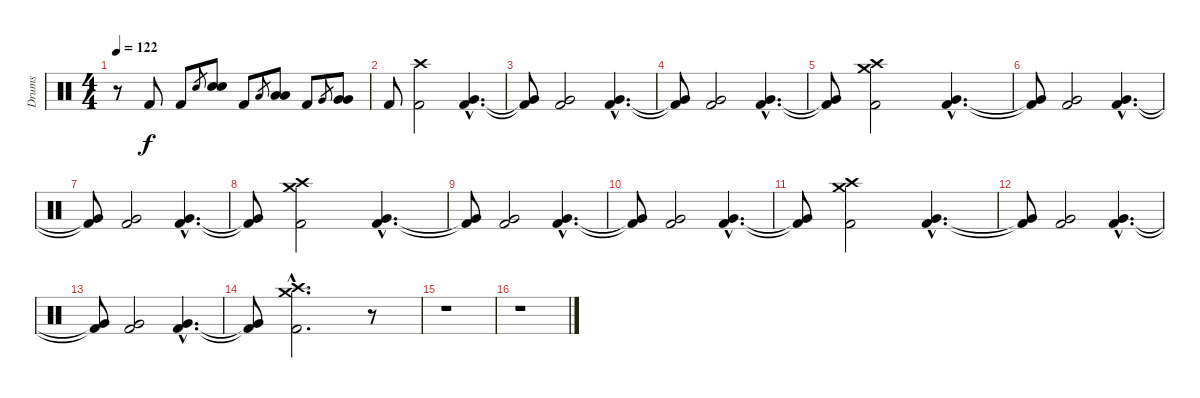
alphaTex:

\track ("Drums" "Drums") {instrument percussion}
\staff {score}
\articulation defaults
\ts (4 4)
\tempo 122
\clef neutral
\ks c
r.8{dy f} "Kick (hit) 2".8 "Kick (hit) 2".8 "Snare (hit) 2".8{gr} ("Snare (hit) 2" "Snare (hit) 2").8 "Kick (hit) 2".8 "Low Tom (hit)".8{gr} ("Low Tom (hit)" "Low Tom (hit)").8 "Kick (hit) 2".8 "Very Low Tom (hit)".8{gr} ("Very Low Tom (hit)" "Very Low Tom (hit)").8 |
"Kick (hit) 2".8 ("Crash high (hit)" "Kick (hit) 2").2 ("Very Low Tom (hit)"{hac} "Kick (hit) 2"{hac}).4{d} |
("Very Low Tom (hit)"{t} "Kick (hit) 2"{t}).8 ("Very Low Tom (hit)" "Kick (hit) 2").2 ("Very Low Tom (hit)"{hac} "Kick (hit) 2"{hac}).4{d} |
("Very Low Tom (hit)"{t} "Kick (hit) 2"{t}).8 ("Very Low Tom (hit)" "Kick (hit) 2").2 ("Very Low Tom (hit)"{hac} "Kick (hit) 2"{hac}).4{d} |
("Very Low Tom (hit)"{t} "Kick (hit) 2"{t}).8 ("Crash high (hit)" "Crash medium (hit)" "Kick (hit) 2").2 ("Very Low Tom (hit)"{hac} "Kick (hit) 2"{hac}).4{d} |
("Very Low Tom (hit)"{t} "Kick (hit) 2"{t}).8 ("Very Low Tom (hit)" "Kick (hit) 2").2 ("Very Low Tom (hit)"{hac} "Kick (hit) 2"{hac}).4{d} |
("Very Low Tom (hit)"{t} "Kick (hit) 2"{t}).8 ("Very Low Tom (hit)" "Kick (hit) 2").2 ("Very Low Tom (hit)"{hac} "Kick (hit) 2"{hac}).4{d} |
("Very Low Tom (hit)"{t} "Kick (hit) 2"{t}).8 ("Crash high (hit)" "Crash medium (hit)" "Kick (hit) 2").2 ("Very Low Tom (hit)"{hac} "Kick (hit) 2"{hac}).4{d} |
("Very Low Tom (hit)"{t} "Kick (hit) 2"{t}).8 ("Very Low Tom (hit)" "Kick (hit) 2").2 ("Very Low Tom (hit)"{hac} "Kick (hit) 2"{hac}).4{d} |
("Very Low Tom (hit)"{t} "Kick (hit) 2"{t}).8 ("Very Low Tom (hit)" "Kick (hit) 2").2 ("Very Low Tom (hit)"{hac} "Kick (hit) 2"{hac}).4{d} |
("Very Low Tom (hit)"{t} "Kick (hit) 2"{t}).8 ("Crash high (hit)" "Crash medium (hit)" "Kick (hit) 2").2 ("Very Low Tom (hit)"{hac} "Kick (hit) 2"{hac}).4{d} |
("Very Low Tom (hit)"{t} "Kick (hit) 2"{t}).8 ("Very Low Tom (hit)" "Kick (hit) 2").2 ("Very Low Tom (hit)"{hac} "Kick (hit) 2"{hac}).4{d} |
("Very Low Tom (hit)"{t} "Kick (hit) 2"{t}).8 ("Very Low Tom (hit)" "Kick (hit) 2").2 ("Very Low Tom (hit)"{hac} "Kick (hit) 2"{hac}).4{d} |
("Very Low Tom (hit)"{t} "Kick (hit) 2"{t}).8 ("Crash high (hit)"{hac} "Crash medium (hit)"{hac} "Kick (hit) 2"{hac}).2{d} r.8 |
r.1 |
r.1
